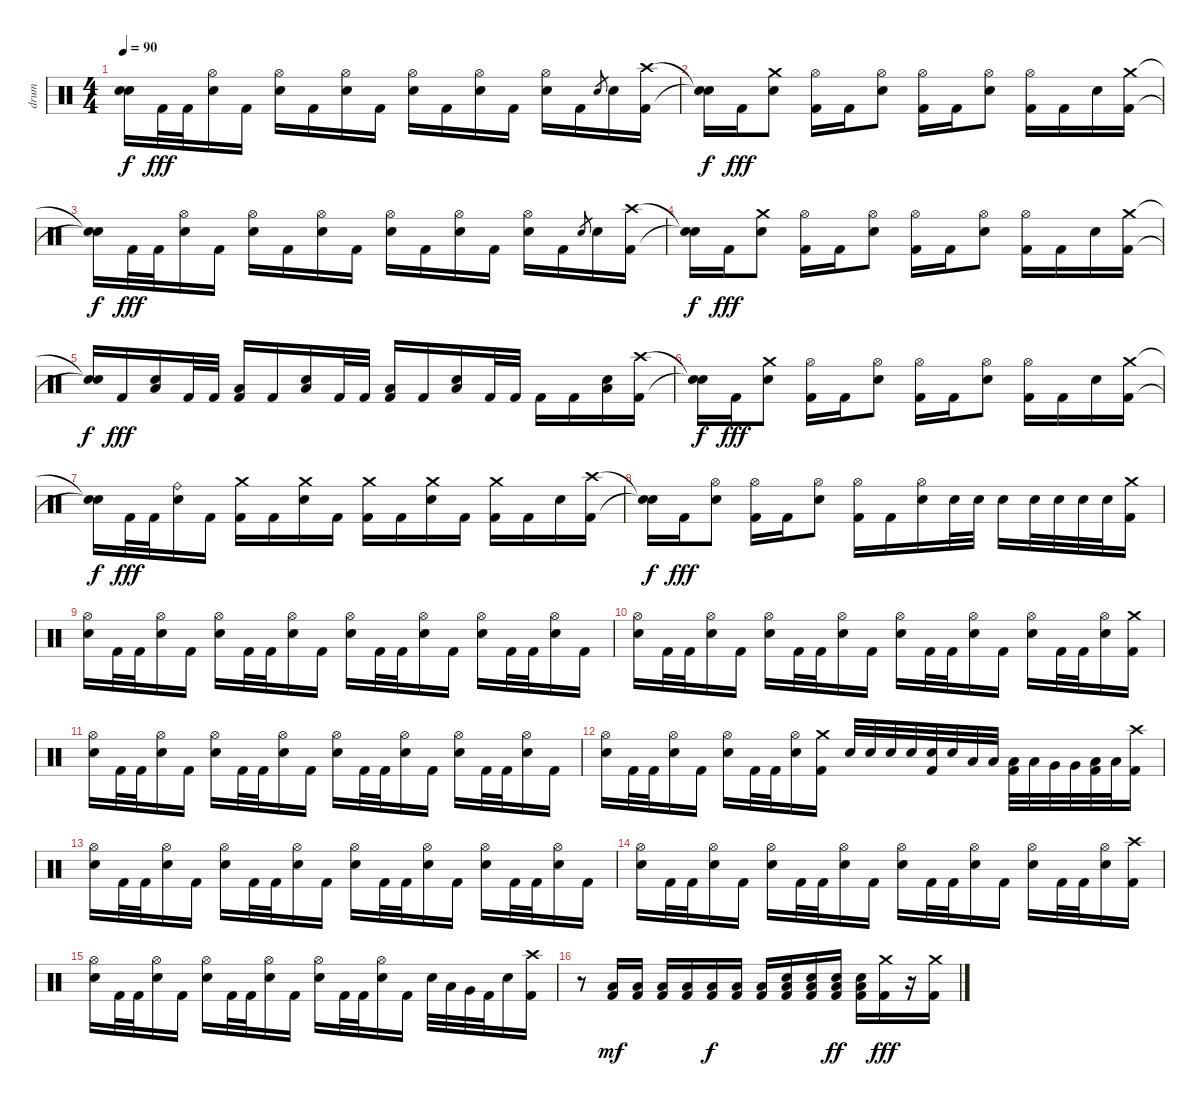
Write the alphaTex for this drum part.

\track ("drum" "drum") {instrument percussion}
\staff {score}
\articulation defaults
\ts (4 4)
\tempo 90
\clef neutral
\ks c
("Snare (hit)"{t} "Snare (hit)"{t}).16{dy f} "Kick (hit) 2".32{dy fff} "Kick (hit) 2".32 ("Hi-Hat (open)" "Electric Snare (hit)").16 "Kick (hit) 2".16 ("Hi-Hat (open)" "Electric Snare (hit)").16 "Kick (hit) 2".16 ("Hi-Hat (open)" "Electric Snare (hit)").16 "Kick (hit) 2".16 ("Hi-Hat (open)" "Electric Snare (hit)").16 "Kick (hit) 2".16 ("Hi-Hat (open)" "Electric Snare (hit)").16 "Kick (hit) 2".16 ("Hi-Hat (open)" "Electric Snare (hit)").16 "Kick (hit) 2".16 "Electric Snare (hit)".8{gr} "Electric Snare (hit)".16 ("Crash high (hit)" "Kick (hit) 2").16 |
("Snare (hit)"{t} "Snare (hit)"{t}).16{dy f} "Kick (hit) 2".16{dy fff} ("Crash medium (hit)" "Electric Snare (hit)").8 ("Hi-Hat (open)" "Kick (hit) 2").16 "Kick (hit) 2".16 ("Hi-Hat (open)" "Electric Snare (hit)").8 ("Hi-Hat (open)" "Kick (hit) 2").16 "Kick (hit) 2".16 ("Hi-Hat (open)" "Electric Snare (hit)").8 ("Hi-Hat (open)" "Kick (hit) 2").16 "Kick (hit) 2".16 "Electric Snare (hit)".16 ("Crash medium (hit)" "Kick (hit) 2").16 |
("Snare (hit)"{t} "Snare (hit)"{t}).16{dy f} "Kick (hit) 2".32{dy fff} "Kick (hit) 2".32 ("Hi-Hat (open)" "Electric Snare (hit)").16 "Kick (hit) 2".16 ("Hi-Hat (open)" "Electric Snare (hit)").16 "Kick (hit) 2".16 ("Hi-Hat (open)" "Electric Snare (hit)").16 "Kick (hit) 2".16 ("Hi-Hat (open)" "Electric Snare (hit)").16 "Kick (hit) 2".16 ("Hi-Hat (open)" "Electric Snare (hit)").16 "Kick (hit) 2".16 ("Hi-Hat (open)" "Electric Snare (hit)").16 "Kick (hit) 2".16 "Electric Snare (hit)".8{gr} "Electric Snare (hit)".16 ("Crash high (hit)" "Kick (hit) 2").16 |
("Snare (hit)"{t} "Snare (hit)"{t}).16{dy f} "Kick (hit) 2".16{dy fff} ("Crash medium (hit)" "Electric Snare (hit)").8 ("Hi-Hat (open)" "Kick (hit) 2").16 "Kick (hit) 2".16 ("Hi-Hat (open)" "Electric Snare (hit)").8 ("Hi-Hat (open)" "Kick (hit) 2").16 "Kick (hit) 2".16 ("Hi-Hat (open)" "Electric Snare (hit)").8 ("Hi-Hat (open)" "Kick (hit) 2").16 "Kick (hit) 2".16 "Electric Snare (hit)".16 ("Crash medium (hit)" "Kick (hit) 2").16 |
("Snare (hit)"{t} "Snare (hit)"{t}).16{dy f} "Kick (hit) 2".16{dy fff} ("Electric Snare (hit)" "Low Floor Tom (hit)").16 "Kick (hit) 2".32 "Kick (hit) 2".32 ("Low Floor Tom (hit)" "Kick (hit) 2").16 "Kick (hit) 2".16 ("Electric Snare (hit)" "Low Floor Tom (hit)").16 "Kick (hit) 2".32 "Kick (hit) 2".32 ("Low Floor Tom (hit)" "Kick (hit) 2").16 "Kick (hit) 2".16 ("Electric Snare (hit)" "Low Floor Tom (hit)").16 "Kick (hit) 2".32 "Kick (hit) 2".32 "Kick (hit) 2".16 "Kick (hit) 2".16 ("Electric Snare (hit)" "Low Floor Tom (hit)").16 ("Crash high (hit)" "Kick (hit) 2").16 |
("Snare (hit)"{t} "Snare (hit)"{t}).16{dy f} "Kick (hit) 2".16{dy fff} ("Crash medium (hit)" "Electric Snare (hit)").8 ("Hi-Hat (open)" "Kick (hit) 2").16 "Kick (hit) 2".16 ("Hi-Hat (open)" "Electric Snare (hit)").8 ("Hi-Hat (open)" "Kick (hit) 2").16 "Kick (hit) 2".16 ("Hi-Hat (open)" "Electric Snare (hit)").8 ("Hi-Hat (open)" "Kick (hit) 2").16 "Kick (hit) 2".16 "Electric Snare (hit)".16 ("Crash medium (hit)" "Kick (hit) 2").16 |
("Snare (hit)"{t} "Snare (hit)"{t}).16{dy f} "Kick (hit) 2".32{dy fff} "Kick (hit) 2".32 ("Ride (bell)" "Electric Snare (hit)").16 "Kick (hit) 2".16 ("Crash medium (hit)" "Kick (hit) 2").16 "Kick (hit) 2".16 ("Crash medium (hit)" "Electric Snare (hit)").16 "Kick (hit) 2".16 ("Crash medium (hit)" "Kick (hit) 2").16 "Kick (hit) 2".16 ("Crash medium (hit)" "Electric Snare (hit)").16 "Kick (hit) 2".16 ("Crash medium (hit)" "Kick (hit) 2").16 "Kick (hit) 2".16 "Electric Snare (hit)".16 ("Crash high (hit)" "Kick (hit) 2").16 |
("Snare (hit)"{t} "Snare (hit)"{t}).16{dy f} "Kick (hit) 2".16{dy fff} ("Hi-Hat (open)" "Electric Snare (hit)").8 ("Hi-Hat (open)" "Kick (hit) 2").16 "Kick (hit) 2".16 ("Hi-Hat (open)" "Electric Snare (hit)").8 ("Hi-Hat (open)" "Kick (hit) 2").16 "Kick (hit) 2".16 ("Hi-Hat (open)" "Electric Snare (hit)").16 "Electric Snare (hit)".32 "Electric Snare (hit)".32 "Electric Snare (hit)".16 "Electric Snare (hit)".32 "Electric Snare (hit)".32 "Electric Snare (hit)".32 "Electric Snare (hit)".32 ("Crash medium (hit)" "Kick (hit) 2").16 |
("Hi-Hat (open)" "Electric Snare (hit)").16 "Kick (hit) 2".32 "Kick (hit) 2".32 ("Hi-Hat (open)" "Electric Snare (hit)").16 "Kick (hit) 2".16 ("Hi-Hat (open)" "Electric Snare (hit)").16 "Kick (hit) 2".32 "Kick (hit) 2".32 ("Hi-Hat (open)" "Electric Snare (hit)").16 "Kick (hit) 2".16 ("Hi-Hat (open)" "Electric Snare (hit)").16 "Kick (hit) 2".32 "Kick (hit) 2".32 ("Hi-Hat (open)" "Electric Snare (hit)").16 "Kick (hit) 2".16 ("Hi-Hat (open)" "Electric Snare (hit)").16 "Kick (hit) 2".32 "Kick (hit) 2".32 ("Hi-Hat (open)" "Electric Snare (hit)").16 "Kick (hit) 2".16 |
("Hi-Hat (open)" "Electric Snare (hit)").16 "Kick (hit) 2".32 "Kick (hit) 2".32 ("Hi-Hat (open)" "Electric Snare (hit)").16 "Kick (hit) 2".16 ("Hi-Hat (open)" "Electric Snare (hit)").16 "Kick (hit) 2".32 "Kick (hit) 2".32 ("Hi-Hat (open)" "Electric Snare (hit)").16 "Kick (hit) 2".16 ("Hi-Hat (open)" "Electric Snare (hit)").16 "Kick (hit) 2".32 "Kick (hit) 2".32 ("Hi-Hat (open)" "Electric Snare (hit)").16 "Kick (hit) 2".16 ("Hi-Hat (open)" "Electric Snare (hit)").16 "Kick (hit) 2".32 "Kick (hit) 2".32 ("Hi-Hat (open)" "Electric Snare (hit)").16 ("Crash medium (hit)" "Kick (hit) 2").16 |
("Hi-Hat (open)" "Electric Snare (hit)").16 "Kick (hit) 2".32 "Kick (hit) 2".32 ("Hi-Hat (open)" "Electric Snare (hit)").16 "Kick (hit) 2".16 ("Hi-Hat (open)" "Electric Snare (hit)").16 "Kick (hit) 2".32 "Kick (hit) 2".32 ("Hi-Hat (open)" "Electric Snare (hit)").16 "Kick (hit) 2".16 ("Hi-Hat (open)" "Electric Snare (hit)").16 "Kick (hit) 2".32 "Kick (hit) 2".32 ("Hi-Hat (open)" "Electric Snare (hit)").16 "Kick (hit) 2".16 ("Hi-Hat (open)" "Electric Snare (hit)").16 "Kick (hit) 2".32 "Kick (hit) 2".32 ("Hi-Hat (open)" "Electric Snare (hit)").16 "Kick (hit) 2".16 |
("Hi-Hat (open)" "Electric Snare (hit)").16 "Kick (hit) 2".32 "Kick (hit) 2".32 ("Hi-Hat (open)" "Electric Snare (hit)").16 "Kick (hit) 2".16 ("Hi-Hat (open)" "Electric Snare (hit)").16 "Kick (hit) 2".32 "Kick (hit) 2".32 ("Hi-Hat (open)" "Electric Snare (hit)").16 ("Crash medium (hit)" "Kick (hit) 2").16 "Electric Snare (hit)".32 "Electric Snare (hit)".32 "Electric Snare (hit)".32 "Electric Snare (hit)".32 ("Electric Snare (hit)" "Kick (hit) 2").32 "Electric Snare (hit)".32 "Low Tom (hit)".32 "Low Tom (hit)".32 ("Low Tom (hit)" "Kick (hit) 2").32 "Low Tom (hit)".32 "Very Low Tom (hit)".32 "Very Low Tom (hit)".32 ("Low Floor Tom (hit)" "Kick (hit) 2").32 "Low Floor Tom (hit)".32 ("Crash high (hit)" "Kick (hit) 2").16 |
("Hi-Hat (open)" "Electric Snare (hit)").16 "Kick (hit) 2".32 "Kick (hit) 2".32 ("Hi-Hat (open)" "Electric Snare (hit)").16 "Kick (hit) 2".16 ("Hi-Hat (open)" "Electric Snare (hit)").16 "Kick (hit) 2".32 "Kick (hit) 2".32 ("Hi-Hat (open)" "Electric Snare (hit)").16 "Kick (hit) 2".16 ("Hi-Hat (open)" "Electric Snare (hit)").16 "Kick (hit) 2".32 "Kick (hit) 2".32 ("Hi-Hat (open)" "Electric Snare (hit)").16 "Kick (hit) 2".16 ("Hi-Hat (open)" "Electric Snare (hit)").16 "Kick (hit) 2".32 "Kick (hit) 2".32 ("Hi-Hat (open)" "Electric Snare (hit)").16 "Kick (hit) 2".16 |
("Hi-Hat (open)" "Electric Snare (hit)").16 "Kick (hit) 2".32 "Kick (hit) 2".32 ("Hi-Hat (open)" "Electric Snare (hit)").16 "Kick (hit) 2".16 ("Hi-Hat (open)" "Electric Snare (hit)").16 "Kick (hit) 2".32 "Kick (hit) 2".32 ("Hi-Hat (open)" "Electric Snare (hit)").16 "Kick (hit) 2".16 ("Hi-Hat (open)" "Electric Snare (hit)").16 "Kick (hit) 2".32 "Kick (hit) 2".32 ("Hi-Hat (open)" "Electric Snare (hit)").16 "Kick (hit) 2".16 ("Hi-Hat (open)" "Electric Snare (hit)").16 "Kick (hit) 2".32 "Kick (hit) 2".32 ("Hi-Hat (open)" "Electric Snare (hit)").16 ("Crash high (hit)" "Kick (hit) 2").16 |
("Hi-Hat (open)" "Electric Snare (hit)").16 "Kick (hit) 2".32 "Kick (hit) 2".32 ("Hi-Hat (open)" "Electric Snare (hit)").16 "Kick (hit) 2".16 ("Hi-Hat (open)" "Electric Snare (hit)").16 "Kick (hit) 2".32 "Kick (hit) 2".32 ("Hi-Hat (open)" "Electric Snare (hit)").16 "Kick (hit) 2".16 ("Hi-Hat (open)" "Electric Snare (hit)").16 "Kick (hit) 2".32 "Kick (hit) 2".32 ("Hi-Hat (open)" "Electric Snare (hit)").16 "Kick (hit) 2".16 "Electric Snare (hit)".32 "Low Tom (hit)".32 "Very Low Tom (hit)".32 "Kick (hit) 2".32 "Electric Snare (hit)".16 ("Crash high (hit)" "Kick (hit) 2").16 |
r.8 ("Low Floor Tom (hit)" "Kick (hit) 2").16{dy mf} ("Low Floor Tom (hit)" "Kick (hit) 2").16 ("Low Floor Tom (hit)" "Kick (hit) 2").16 ("Low Floor Tom (hit)" "Kick (hit) 2").16 ("Low Floor Tom (hit)" "Kick (hit) 2").16{dy f} ("Low Floor Tom (hit)" "Kick (hit) 2").16 ("Low Floor Tom (hit)" "Kick (hit) 2").16 ("Electric Snare (hit)" "Low Floor Tom (hit)" "Kick (hit) 2").16 ("Electric Snare (hit)" "Low Floor Tom (hit)" "Kick (hit) 2").16 ("Electric Snare (hit)" "Low Floor Tom (hit)" "Kick (hit) 2").16{dy ff} ("Electric Snare (hit)" "Low Floor Tom (hit)" "Kick (hit) 2").16 ("Crash medium (hit)" "Kick (hit) 2").16{dy fff} r.16 ("Crash medium (hit)" "Kick (hit) 2").16
